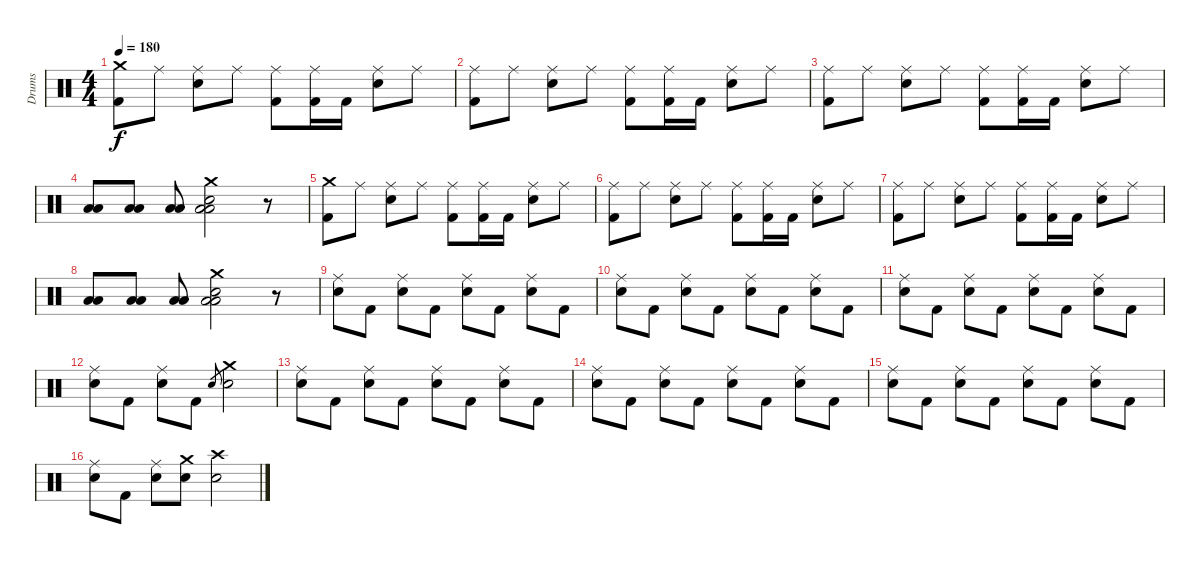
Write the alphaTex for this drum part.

\track ("Drums" "Drums") {instrument percussion}
\staff {score}
\articulation defaults
\ts (4 4)
\tempo 180
\clef neutral
\ks c
("Crash medium (hit)" "Kick (hit) 2").8{dy f} "Ride (middle)".8 ("Ride (middle)" "Electric Snare (hit)").8 "Ride (middle)".8 ("Ride (middle)" "Kick (hit) 2").8 ("Ride (middle)" "Kick (hit) 2").16 "Kick (hit) 2".16 ("Ride (middle)" "Electric Snare (hit)").8 "Ride (middle)".8 |
("Ride (middle)" "Kick (hit) 2").8 "Ride (middle)".8 ("Ride (middle)" "Electric Snare (hit)").8 "Ride (middle)".8 ("Ride (middle)" "Kick (hit) 2").8 ("Ride (middle)" "Kick (hit) 2").16 "Kick (hit) 2".16 ("Ride (middle)" "Electric Snare (hit)").8 "Ride (middle)".8 |
("Ride (middle)" "Kick (hit) 2").8 "Ride (middle)".8 ("Ride (middle)" "Electric Snare (hit)").8 "Ride (middle)".8 ("Ride (middle)" "Kick (hit) 2").8 ("Ride (middle)" "Kick (hit) 2").16 "Kick (hit) 2".16 ("Ride (middle)" "Electric Snare (hit)").8 "Ride (middle)".8 |
("Low Tom (hit)" "Low Tom (hit)").8 ("Low Tom (hit)" "Low Tom (hit)").8 ("Low Tom (hit)" "Low Tom (hit)").8 ("Crash medium (hit)" "Electric Snare (hit)" "Low Tom (hit)" "Low Tom (hit)").2 r.8 |
("Crash medium (hit)" "Kick (hit) 2").8 "Ride (middle)".8 ("Ride (middle)" "Electric Snare (hit)").8 "Ride (middle)".8 ("Ride (middle)" "Kick (hit) 2").8 ("Ride (middle)" "Kick (hit) 2").16 "Kick (hit) 2".16 ("Ride (middle)" "Electric Snare (hit)").8 "Ride (middle)".8 |
("Ride (middle)" "Kick (hit) 2").8 "Ride (middle)".8 ("Ride (middle)" "Electric Snare (hit)").8 "Ride (middle)".8 ("Ride (middle)" "Kick (hit) 2").8 ("Ride (middle)" "Kick (hit) 2").16 "Kick (hit) 2".16 ("Ride (middle)" "Electric Snare (hit)").8 "Ride (middle)".8 |
("Ride (middle)" "Kick (hit) 2").8 "Ride (middle)".8 ("Ride (middle)" "Electric Snare (hit)").8 "Ride (middle)".8 ("Ride (middle)" "Kick (hit) 2").8 ("Ride (middle)" "Kick (hit) 2").16 "Kick (hit) 2".16 ("Ride (middle)" "Electric Snare (hit)").8 "Ride (middle)".8 |
("Low Tom (hit)" "Low Tom (hit)").8 ("Low Tom (hit)" "Low Tom (hit)").8 ("Low Tom (hit)" "Low Tom (hit)").8 ("Crash medium (hit)" "Electric Snare (hit)" "Low Tom (hit)" "Low Tom (hit)").2 r.8 |
("Ride (middle)" "Electric Snare (hit)").8 "Kick (hit) 2".8 ("Ride (middle)" "Electric Snare (hit)").8 "Kick (hit) 2".8 ("Ride (middle)" "Electric Snare (hit)").8 "Kick (hit) 2".8 ("Ride (middle)" "Electric Snare (hit)").8 "Kick (hit) 2".8 |
("Ride (middle)" "Electric Snare (hit)").8 "Kick (hit) 2".8 ("Ride (middle)" "Electric Snare (hit)").8 "Kick (hit) 2".8 ("Ride (middle)" "Electric Snare (hit)").8 "Kick (hit) 2".8 ("Ride (middle)" "Electric Snare (hit)").8 "Kick (hit) 2".8 |
("Ride (middle)" "Electric Snare (hit)").8 "Kick (hit) 2".8 ("Ride (middle)" "Electric Snare (hit)").8 "Kick (hit) 2".8 ("Ride (middle)" "Electric Snare (hit)").8 "Kick (hit) 2".8 ("Ride (middle)" "Electric Snare (hit)").8 "Kick (hit) 2".8 |
("Ride (middle)" "Electric Snare (hit)").8 "Kick (hit) 2".8 ("Ride (middle)" "Electric Snare (hit)").8 "Kick (hit) 2".8 "Electric Snare (hit)".8{gr} ("Crash medium (hit)" "Electric Snare (hit)").2 |
("Ride (middle)" "Electric Snare (hit)").8 "Kick (hit) 2".8 ("Ride (middle)" "Electric Snare (hit)").8 "Kick (hit) 2".8 ("Ride (middle)" "Electric Snare (hit)").8 "Kick (hit) 2".8 ("Ride (middle)" "Electric Snare (hit)").8 "Kick (hit) 2".8 |
("Ride (middle)" "Electric Snare (hit)").8 "Kick (hit) 2".8 ("Ride (middle)" "Electric Snare (hit)").8 "Kick (hit) 2".8 ("Ride (middle)" "Electric Snare (hit)").8 "Kick (hit) 2".8 ("Ride (middle)" "Electric Snare (hit)").8 "Kick (hit) 2".8 |
("Ride (middle)" "Electric Snare (hit)").8 "Kick (hit) 2".8 ("Ride (middle)" "Electric Snare (hit)").8 "Kick (hit) 2".8 ("Ride (middle)" "Electric Snare (hit)").8 "Kick (hit) 2".8 ("Ride (middle)" "Electric Snare (hit)").8 "Kick (hit) 2".8 |
("Ride (middle)" "Electric Snare (hit)").8 "Kick (hit) 2".8 ("Ride (middle)" "Electric Snare (hit)").8 ("Crash medium (hit)" "Electric Snare (hit)").8 ("Crash high (hit)" "Electric Snare (hit)").2
